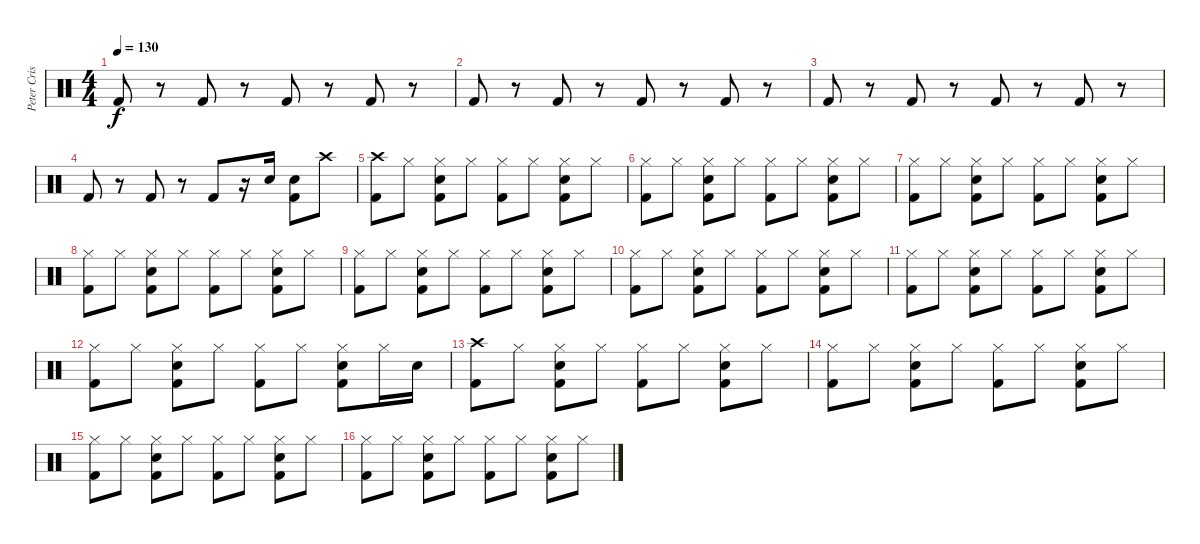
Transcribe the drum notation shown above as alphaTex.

\track ("Peter Criss" "Peter Cris") {instrument percussion}
\staff {score}
\articulation defaults
\ts (4 4)
\tempo 130
\clef neutral
\ks c "Kick (hit) 2".8{dy f}
r.8 "Kick (hit) 2".8 r.8 "Kick (hit) 2".8 r.8 "Kick (hit) 2".8 r.8 |
"Kick (hit) 2".8 r.8 "Kick (hit) 2".8 r.8 "Kick (hit) 2".8 r.8 "Kick (hit) 2".8 r.8 |
"Kick (hit) 2".8 r.8 "Kick (hit) 2".8 r.8 "Kick (hit) 2".8 r.8 "Kick (hit) 2".8 r.8 |
"Kick (hit) 2".8 r.8 "Kick (hit) 2".8 r.8 "Kick (hit) 2".8 r.16 "Electric Snare (hit)".16 ("Electric Snare (hit)" "Kick (hit) 2").8 "Crash high (hit)".8 |
("Crash high (hit)" "Kick (hit) 2").8 "Hi-Hat (closed)".8 ("Hi-Hat (closed)" "Electric Snare (hit)" "Kick (hit) 2").8 "Hi-Hat (closed)".8 ("Hi-Hat (closed)" "Kick (hit) 2").8 "Hi-Hat (closed)".8 ("Hi-Hat (closed)" "Electric Snare (hit)" "Kick (hit) 2").8 "Hi-Hat (closed)".8 |
("Hi-Hat (closed)" "Kick (hit) 2").8 "Hi-Hat (closed)".8 ("Hi-Hat (closed)" "Electric Snare (hit)" "Kick (hit) 2").8 "Hi-Hat (closed)".8 ("Hi-Hat (closed)" "Kick (hit) 2").8 "Hi-Hat (closed)".8 ("Hi-Hat (closed)" "Electric Snare (hit)" "Kick (hit) 2").8 "Hi-Hat (closed)".8 |
("Hi-Hat (closed)" "Kick (hit) 2").8 "Hi-Hat (closed)".8 ("Hi-Hat (closed)" "Electric Snare (hit)" "Kick (hit) 2").8 "Hi-Hat (closed)".8 ("Hi-Hat (closed)" "Kick (hit) 2").8 "Hi-Hat (closed)".8 ("Hi-Hat (closed)" "Electric Snare (hit)" "Kick (hit) 2").8 "Hi-Hat (closed)".8 |
("Hi-Hat (closed)" "Kick (hit) 2").8 "Hi-Hat (closed)".8 ("Hi-Hat (closed)" "Electric Snare (hit)" "Kick (hit) 2").8 "Hi-Hat (closed)".8 ("Hi-Hat (closed)" "Kick (hit) 2").8 "Hi-Hat (closed)".8 ("Hi-Hat (closed)" "Electric Snare (hit)" "Kick (hit) 2").8 "Hi-Hat (closed)".8 |
("Hi-Hat (closed)" "Kick (hit) 2").8 "Hi-Hat (closed)".8 ("Hi-Hat (closed)" "Electric Snare (hit)" "Kick (hit) 2").8 "Hi-Hat (closed)".8 ("Hi-Hat (closed)" "Kick (hit) 2").8 "Hi-Hat (closed)".8 ("Hi-Hat (closed)" "Electric Snare (hit)" "Kick (hit) 2").8 "Hi-Hat (closed)".8 |
("Hi-Hat (closed)" "Kick (hit) 2").8 "Hi-Hat (closed)".8 ("Hi-Hat (closed)" "Electric Snare (hit)" "Kick (hit) 2").8 "Hi-Hat (closed)".8 ("Hi-Hat (closed)" "Kick (hit) 2").8 "Hi-Hat (closed)".8 ("Hi-Hat (closed)" "Electric Snare (hit)" "Kick (hit) 2").8 "Hi-Hat (closed)".8 |
("Hi-Hat (closed)" "Kick (hit) 2").8 "Hi-Hat (closed)".8 ("Hi-Hat (closed)" "Electric Snare (hit)" "Kick (hit) 2").8 "Hi-Hat (closed)".8 ("Hi-Hat (closed)" "Kick (hit) 2").8 "Hi-Hat (closed)".8 ("Hi-Hat (closed)" "Electric Snare (hit)" "Kick (hit) 2").8 "Hi-Hat (closed)".8 |
("Hi-Hat (closed)" "Kick (hit) 2").8 "Hi-Hat (closed)".8 ("Hi-Hat (closed)" "Electric Snare (hit)" "Kick (hit) 2").8 "Hi-Hat (closed)".8 ("Hi-Hat (closed)" "Kick (hit) 2").8 "Hi-Hat (closed)".8 ("Hi-Hat (closed)" "Electric Snare (hit)" "Kick (hit) 2").8 "Hi-Hat (closed)".16 "Electric Snare (hit)".16 |
("Crash high (hit)" "Kick (hit) 2").8 "Hi-Hat (closed)".8 ("Hi-Hat (closed)" "Electric Snare (hit)" "Kick (hit) 2").8 "Hi-Hat (closed)".8 ("Hi-Hat (closed)" "Kick (hit) 2").8 "Hi-Hat (closed)".8 ("Hi-Hat (closed)" "Electric Snare (hit)" "Kick (hit) 2").8 "Hi-Hat (closed)".8 |
("Hi-Hat (closed)" "Kick (hit) 2").8 "Hi-Hat (closed)".8 ("Hi-Hat (closed)" "Electric Snare (hit)" "Kick (hit) 2").8 "Hi-Hat (closed)".8 ("Hi-Hat (closed)" "Kick (hit) 2").8 "Hi-Hat (closed)".8 ("Hi-Hat (closed)" "Electric Snare (hit)" "Kick (hit) 2").8 "Hi-Hat (closed)".8 |
("Hi-Hat (closed)" "Kick (hit) 2").8 "Hi-Hat (closed)".8 ("Hi-Hat (closed)" "Electric Snare (hit)" "Kick (hit) 2").8 "Hi-Hat (closed)".8 ("Hi-Hat (closed)" "Kick (hit) 2").8 "Hi-Hat (closed)".8 ("Hi-Hat (closed)" "Electric Snare (hit)" "Kick (hit) 2").8 "Hi-Hat (closed)".8 |
("Hi-Hat (closed)" "Kick (hit) 2").8 "Hi-Hat (closed)".8 ("Hi-Hat (closed)" "Electric Snare (hit)" "Kick (hit) 2").8 "Hi-Hat (closed)".8 ("Hi-Hat (closed)" "Kick (hit) 2").8 "Hi-Hat (closed)".8 ("Hi-Hat (closed)" "Electric Snare (hit)" "Kick (hit) 2").8 "Hi-Hat (closed)".8
